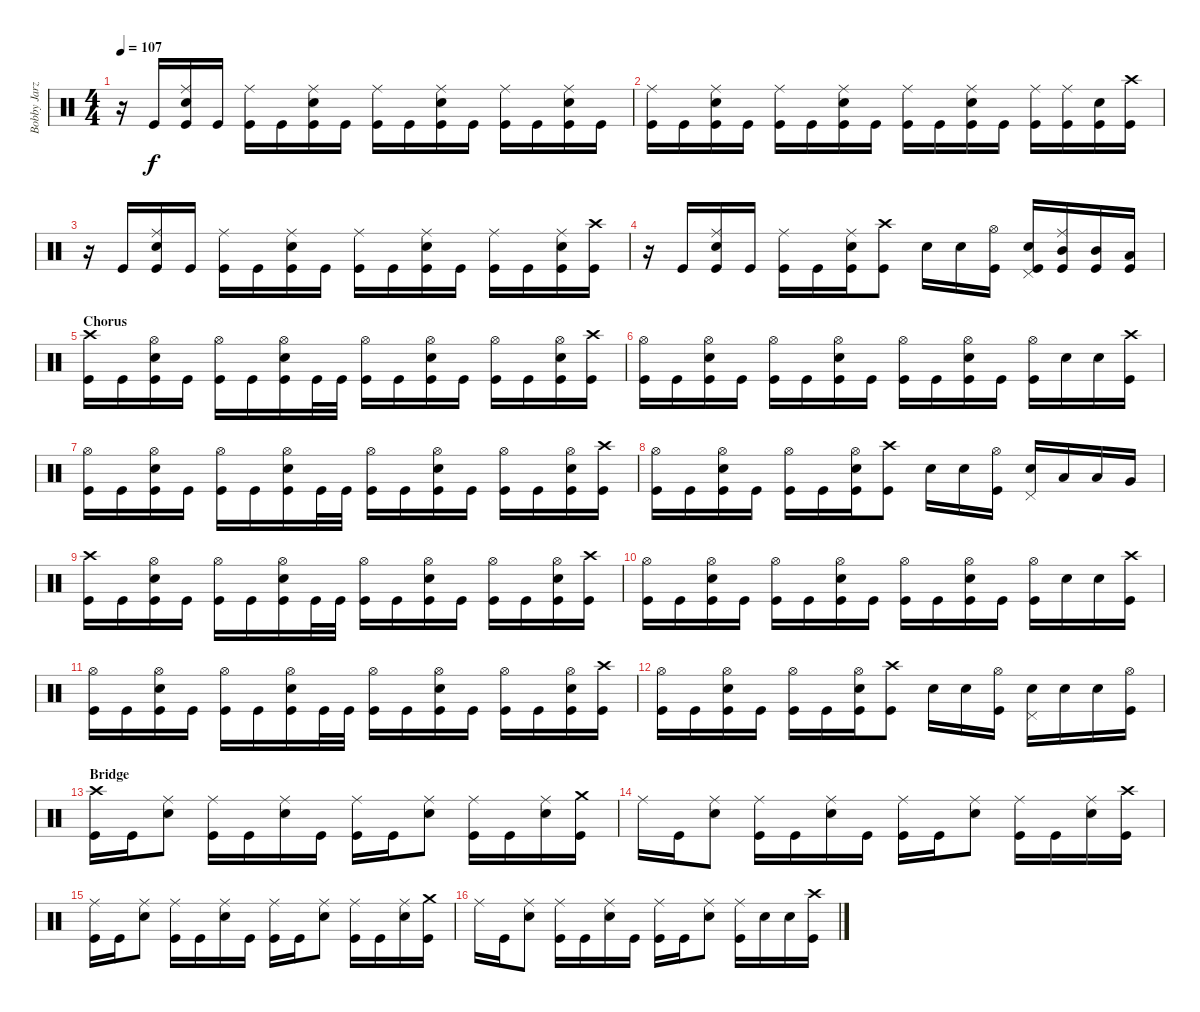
\track ("Bobby Jarzombek" "Bobby Jarz") {instrument percussion}
\staff {score}
\articulation defaults
\ts (4 4)
\tempo 107
\clef neutral
\ks c
r.16{dy f} "Kick (hit)".16 ("Ride (middle)" "Electric Snare (hit)" "Kick (hit)").16 "Kick (hit)".16 ("Ride (middle)" "Kick (hit)").16 "Kick (hit)".16 ("Ride (middle)" "Electric Snare (hit)" "Kick (hit)").16 "Kick (hit)".16 ("Ride (middle)" "Kick (hit)").16 "Kick (hit)".16 ("Ride (middle)" "Electric Snare (hit)" "Kick (hit)").16 "Kick (hit)".16 ("Ride (middle)" "Kick (hit)").16 "Kick (hit)".16 ("Ride (middle)" "Electric Snare (hit)" "Kick (hit)").16 "Kick (hit)".16 |
("Ride (middle)" "Kick (hit)").16 "Kick (hit)".16 ("Ride (middle)" "Electric Snare (hit)" "Kick (hit)").16 "Kick (hit)".16 ("Ride (middle)" "Kick (hit)").16 "Kick (hit)".16 ("Ride (middle)" "Electric Snare (hit)" "Kick (hit)").16 "Kick (hit)".16 ("Ride (middle)" "Kick (hit)").16 "Kick (hit)".16 ("Ride (middle)" "Electric Snare (hit)" "Kick (hit)").16 "Kick (hit)".16 ("Ride (middle)" "Kick (hit)").16 ("Ride (middle)" "Kick (hit)").16 ("Electric Snare (hit)" "Kick (hit)").16 ("Crash high (hit)" "Kick (hit)").16 |
r.16 "Kick (hit)".16 ("Ride (middle)" "Electric Snare (hit)" "Kick (hit)").16 "Kick (hit)".16 ("Ride (middle)" "Kick (hit)").16 "Kick (hit)".16 ("Ride (middle)" "Electric Snare (hit)" "Kick (hit)").16 "Kick (hit)".16 ("Ride (middle)" "Kick (hit)").16 "Kick (hit)".16 ("Ride (middle)" "Electric Snare (hit)" "Kick (hit)").16 "Kick (hit)".16 ("Ride (middle)" "Kick (hit)").16 "Kick (hit)".16 ("Ride (middle)" "Electric Snare (hit)" "Kick (hit)").16 ("Crash high (hit)" "Kick (hit)").16 |
r.16 "Kick (hit)".16 ("Ride (middle)" "Electric Snare (hit)" "Kick (hit)").16 "Kick (hit)".16 ("Ride (middle)" "Kick (hit)").16 "Kick (hit)".16 ("Ride (middle)" "Electric Snare (hit)" "Kick (hit)").16 ("Crash high (hit)" "Kick (hit)").8 "Electric Snare (hit)".16 "Electric Snare (hit)".16 ("Hi-Hat (open)" "Kick (hit)").16 ("Electric Snare (hit)" "Pedal Hi-Hat (hit)" "Kick (hit)").16 ("Ride (middle)" "Mid Tom (hit)" "Kick (hit)").16 ("Mid Tom (hit)" "Kick (hit)").16 ("Low Tom (hit)" "Kick (hit)").16 |
\section ("" "Chorus")
("Crash high (hit)" "Kick (hit)").16 "Kick (hit)".16 ("Hi-Hat (open)" "Electric Snare (hit)" "Kick (hit)").16 "Kick (hit)".16 ("Hi-Hat (open)" "Kick (hit)").16 "Kick (hit)".16 ("Hi-Hat (open)" "Electric Snare (hit)" "Kick (hit)").16 "Kick (hit)".32 "Kick (hit)".32 ("Hi-Hat (open)" "Kick (hit)").16 "Kick (hit)".16 ("Hi-Hat (open)" "Electric Snare (hit)" "Kick (hit)").16 "Kick (hit)".16 ("Hi-Hat (open)" "Kick (hit)").16 "Kick (hit)".16 ("Hi-Hat (open)" "Electric Snare (hit)" "Kick (hit)").16 ("Crash high (hit)" "Kick (hit)").16 |
("Hi-Hat (open)" "Kick (hit)").16 "Kick (hit)".16 ("Hi-Hat (open)" "Electric Snare (hit)" "Kick (hit)").16 "Kick (hit)".16 ("Hi-Hat (open)" "Kick (hit)").16 "Kick (hit)".16 ("Hi-Hat (open)" "Electric Snare (hit)" "Kick (hit)").16 "Kick (hit)".16 ("Hi-Hat (open)" "Kick (hit)").16 "Kick (hit)".16 ("Hi-Hat (open)" "Electric Snare (hit)" "Kick (hit)").16 "Kick (hit)".16 ("Hi-Hat (open)" "Kick (hit)").16 "Electric Snare (hit)".16 "Electric Snare (hit)".16 ("Crash high (hit)" "Kick (hit)").16 |
("Hi-Hat (open)" "Kick (hit)").16 "Kick (hit)".16 ("Hi-Hat (open)" "Electric Snare (hit)" "Kick (hit)").16 "Kick (hit)".16 ("Hi-Hat (open)" "Kick (hit)").16 "Kick (hit)".16 ("Hi-Hat (open)" "Electric Snare (hit)" "Kick (hit)").16 "Kick (hit)".32 "Kick (hit)".32 ("Hi-Hat (open)" "Kick (hit)").16 "Kick (hit)".16 ("Hi-Hat (open)" "Electric Snare (hit)" "Kick (hit)").16 "Kick (hit)".16 ("Hi-Hat (open)" "Kick (hit)").16 "Kick (hit)".16 ("Hi-Hat (open)" "Electric Snare (hit)" "Kick (hit)").16 ("Crash high (hit)" "Kick (hit)").16 |
("Hi-Hat (open)" "Kick (hit)").16 "Kick (hit)".16 ("Hi-Hat (open)" "Electric Snare (hit)" "Kick (hit)").16 "Kick (hit)".16 ("Hi-Hat (open)" "Kick (hit)").16 "Kick (hit)".16 ("Hi-Hat (open)" "Electric Snare (hit)" "Kick (hit)").16 ("Crash high (hit)" "Kick (hit)").8 "Electric Snare (hit)".16 "Electric Snare (hit)".16 ("Hi-Hat (open)" "Kick (hit)").16 ("Electric Snare (hit)" "Pedal Hi-Hat (hit)").16 "Low Tom (hit)".16 "Low Tom (hit)".16 "Very Low Tom (hit)".16 |
("Crash high (hit)" "Kick (hit)").16 "Kick (hit)".16 ("Hi-Hat (open)" "Electric Snare (hit)" "Kick (hit)").16 "Kick (hit)".16 ("Hi-Hat (open)" "Kick (hit)").16 "Kick (hit)".16 ("Hi-Hat (open)" "Electric Snare (hit)" "Kick (hit)").16 "Kick (hit)".32 "Kick (hit)".32 ("Hi-Hat (open)" "Kick (hit)").16 "Kick (hit)".16 ("Hi-Hat (open)" "Electric Snare (hit)" "Kick (hit)").16 "Kick (hit)".16 ("Hi-Hat (open)" "Kick (hit)").16 "Kick (hit)".16 ("Hi-Hat (open)" "Electric Snare (hit)" "Kick (hit)").16 ("Crash high (hit)" "Kick (hit)").16 |
("Hi-Hat (open)" "Kick (hit)").16 "Kick (hit)".16 ("Hi-Hat (open)" "Electric Snare (hit)" "Kick (hit)").16 "Kick (hit)".16 ("Hi-Hat (open)" "Kick (hit)").16 "Kick (hit)".16 ("Hi-Hat (open)" "Electric Snare (hit)" "Kick (hit)").16 "Kick (hit)".16 ("Hi-Hat (open)" "Kick (hit)").16 "Kick (hit)".16 ("Hi-Hat (open)" "Electric Snare (hit)" "Kick (hit)").16 "Kick (hit)".16 ("Hi-Hat (open)" "Kick (hit)").16 "Electric Snare (hit)".16 "Electric Snare (hit)".16 ("Crash high (hit)" "Kick (hit)").16 |
("Hi-Hat (open)" "Kick (hit)").16 "Kick (hit)".16 ("Hi-Hat (open)" "Electric Snare (hit)" "Kick (hit)").16 "Kick (hit)".16 ("Hi-Hat (open)" "Kick (hit)").16 "Kick (hit)".16 ("Hi-Hat (open)" "Electric Snare (hit)" "Kick (hit)").16 "Kick (hit)".32 "Kick (hit)".32 ("Hi-Hat (open)" "Kick (hit)").16 "Kick (hit)".16 ("Hi-Hat (open)" "Electric Snare (hit)" "Kick (hit)").16 "Kick (hit)".16 ("Hi-Hat (open)" "Kick (hit)").16 "Kick (hit)".16 ("Hi-Hat (open)" "Electric Snare (hit)" "Kick (hit)").16 ("Crash high (hit)" "Kick (hit)").16 |
("Hi-Hat (open)" "Kick (hit)").16 "Kick (hit)".16 ("Hi-Hat (open)" "Electric Snare (hit)" "Kick (hit)").16 "Kick (hit)".16 ("Hi-Hat (open)" "Kick (hit)").16 "Kick (hit)".16 ("Hi-Hat (open)" "Electric Snare (hit)" "Kick (hit)").16 ("Crash high (hit)" "Kick (hit)").8 "Electric Snare (hit)".16 "Electric Snare (hit)".16 ("Hi-Hat (open)" "Kick (hit)").16 ("Electric Snare (hit)" "Pedal Hi-Hat (hit)").16 "Electric Snare (hit)".16 "Electric Snare (hit)".16 ("Hi-Hat (open)" "Kick (hit)").16 |
\section ("" "Bridge")
("Crash high (hit)" "Kick (hit)").16 "Kick (hit)".16 ("Ride (middle)" "Electric Snare (hit)").8 ("Ride (middle)" "Kick (hit)").16 "Kick (hit)".16 ("Ride (middle)" "Electric Snare (hit)").16 "Kick (hit)".16 ("Ride (middle)" "Kick (hit)").16 "Kick (hit)".16 ("Ride (middle)" "Electric Snare (hit)").8 ("Ride (middle)" "Kick (hit)").16 "Kick (hit)".16 ("Ride (middle)" "Electric Snare (hit)").16 ("Crash medium (hit)" "Kick (hit)").16 |
"Ride (middle)".16 "Kick (hit)".16 ("Ride (middle)" "Electric Snare (hit)").8 ("Ride (middle)" "Kick (hit)").16 "Kick (hit)".16 ("Ride (middle)" "Electric Snare (hit)").16 "Kick (hit)".16 ("Ride (middle)" "Kick (hit)").16 "Kick (hit)".16 ("Ride (middle)" "Electric Snare (hit)").8 ("Ride (middle)" "Kick (hit)").16 "Kick (hit)".16 ("Ride (middle)" "Electric Snare (hit)").16 ("Crash high (hit)" "Kick (hit)").16 |
("Ride (middle)" "Kick (hit)").16 "Kick (hit)".16 ("Ride (middle)" "Electric Snare (hit)").8 ("Ride (middle)" "Kick (hit)").16 "Kick (hit)".16 ("Ride (middle)" "Electric Snare (hit)").16 "Kick (hit)".16 ("Ride (middle)" "Kick (hit)").16 "Kick (hit)".16 ("Ride (middle)" "Electric Snare (hit)").8 ("Ride (middle)" "Kick (hit)").16 "Kick (hit)".16 ("Ride (middle)" "Electric Snare (hit)").16 ("Crash medium (hit)" "Kick (hit)").16 |
"Ride (middle)".16 "Kick (hit)".16 ("Ride (middle)" "Electric Snare (hit)").8 ("Ride (middle)" "Kick (hit)").16 "Kick (hit)".16 ("Ride (middle)" "Electric Snare (hit)").16 "Kick (hit)".16 ("Ride (middle)" "Kick (hit)").16 "Kick (hit)".16 ("Ride (middle)" "Electric Snare (hit)").8 ("Ride (middle)" "Kick (hit)").16 "Electric Snare (hit)".16 "Electric Snare (hit)".16 ("Crash high (hit)" "Kick (hit)").16
